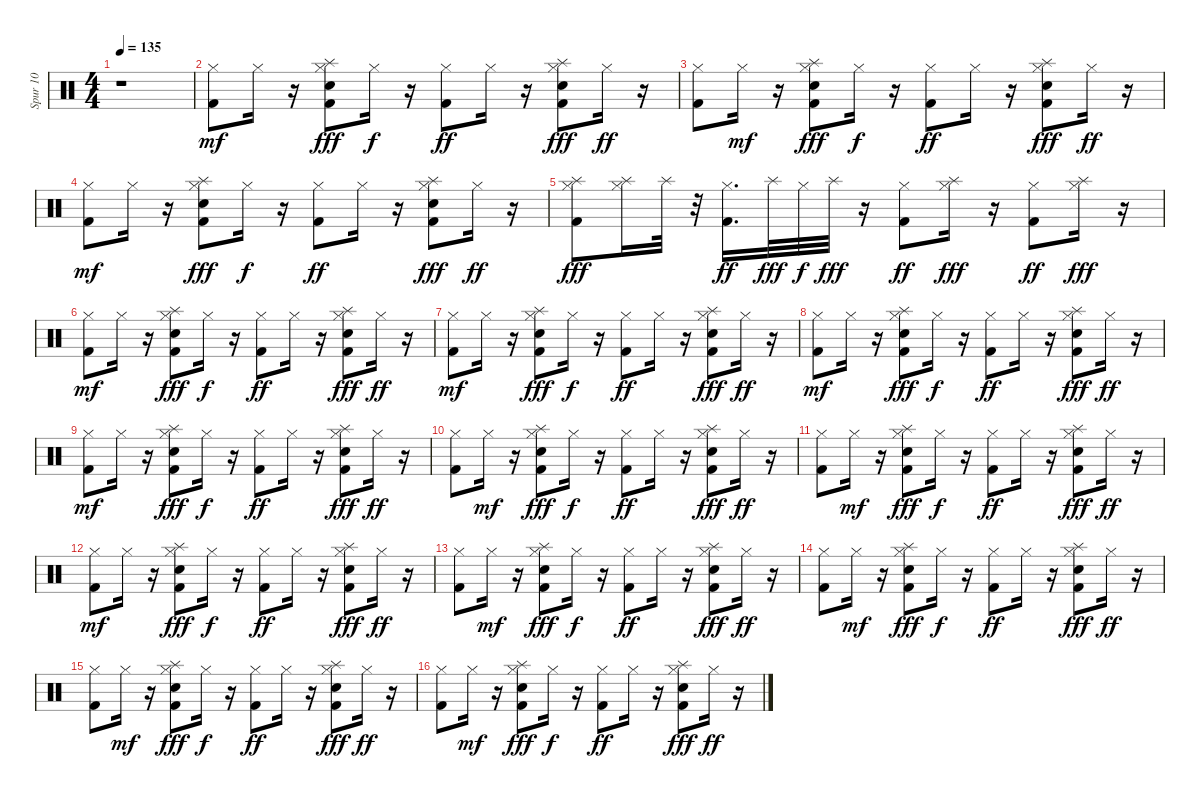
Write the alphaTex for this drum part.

\track ("Spur 10" "Spur 10") {instrument percussion}
\staff {score}
\articulation defaults
\ts (4 4)
\tempo 135
\clef neutral
\ks c
r.1{dy mf} |
("Kick (hit) 2" "Hi-Hat (closed)").8 "Hi-Hat (closed)".16 r.16 ("Kick (hit) 2" "Hi-Hat (closed)" "Snare (hit) 2" "Splash (hit)").8{dy fff} "Hi-Hat (closed)".16{dy f} r.16 ("Kick (hit) 2" "Hi-Hat (closed)").8{dy ff} "Hi-Hat (closed)".16 r.16 ("Kick (hit) 2" "Hi-Hat (closed)" "Snare (hit) 2" "Splash (hit)").8{dy fff} "Hi-Hat (closed)".16{dy ff} r.16 |
("Hi-Hat (closed)" "Kick (hit) 2").8 "Hi-Hat (closed)".16{dy mf} r.16 ("Hi-Hat (closed)" "Kick (hit) 2" "Splash (hit)" "Snare (hit) 2").8{dy fff} "Hi-Hat (closed)".16{dy f} r.16 ("Hi-Hat (closed)" "Kick (hit) 2").8{dy ff} "Hi-Hat (closed)".16 r.16 ("Hi-Hat (closed)" "Kick (hit) 2" "Splash (hit)" "Snare (hit) 2").8{dy fff} "Hi-Hat (closed)".16{dy ff} r.16 |
("Kick (hit) 2" "Hi-Hat (closed)").8{dy mf} "Hi-Hat (closed)".16 r.16 ("Kick (hit) 2" "Hi-Hat (closed)" "Splash (hit)" "Snare (hit) 2").8{dy fff} "Hi-Hat (closed)".16{dy f} r.16 ("Kick (hit) 2" "Hi-Hat (closed)").8{dy ff} "Hi-Hat (closed)".16 r.16 ("Kick (hit) 2" "Hi-Hat (closed)" "Splash (hit)" "Snare (hit) 2").8{dy fff} "Hi-Hat (closed)".16{dy ff} r.16 |
("Kick (hit) 2" "Hi-Hat (closed)" "Splash (hit)").8{dy fff} ("Hi-Hat (closed)" "Splash (hit)").16 "Splash (hit)".32 r.32 ("Kick (hit) 2" "Hi-Hat (closed)").16{d dy ff} "Splash (hit)".32{dy fff} "Hi-Hat (closed)".32{dy f} "Splash (hit)".32{dy fff} r.16 ("Kick (hit) 2" "Hi-Hat (closed)").8{dy ff} ("Hi-Hat (closed)" "Splash (hit)").16{dy fff} r.16 ("Kick (hit) 2" "Hi-Hat (closed)").8{dy ff} ("Hi-Hat (closed)" "Splash (hit)").16{dy fff} r.16 |
("Kick (hit) 2" "Hi-Hat (closed)").8{dy mf} "Hi-Hat (closed)".16 r.16 ("Kick (hit) 2" "Hi-Hat (closed)" "Splash (hit)" "Snare (hit) 2").8{dy fff} "Hi-Hat (closed)".16{dy f} r.16 ("Kick (hit) 2" "Hi-Hat (closed)").8{dy ff} "Hi-Hat (closed)".16 r.16 ("Kick (hit) 2" "Hi-Hat (closed)" "Splash (hit)" "Snare (hit) 2").8{dy fff} "Hi-Hat (closed)".16{dy ff} r.16 |
("Kick (hit) 2" "Hi-Hat (closed)").8{dy mf} "Hi-Hat (closed)".16 r.16 ("Kick (hit) 2" "Hi-Hat (closed)" "Snare (hit) 2" "Splash (hit)").8{dy fff} "Hi-Hat (closed)".16{dy f} r.16 ("Kick (hit) 2" "Hi-Hat (closed)").8{dy ff} "Hi-Hat (closed)".16 r.16 ("Kick (hit) 2" "Hi-Hat (closed)" "Snare (hit) 2" "Splash (hit)").8{dy fff} "Hi-Hat (closed)".16{dy ff} r.16 |
("Kick (hit) 2" "Hi-Hat (closed)").8{dy mf} "Hi-Hat (closed)".16 r.16 ("Kick (hit) 2" "Hi-Hat (closed)" "Snare (hit) 2" "Splash (hit)").8{dy fff} "Hi-Hat (closed)".16{dy f} r.16 ("Kick (hit) 2" "Hi-Hat (closed)").8{dy ff} "Hi-Hat (closed)".16 r.16 ("Kick (hit) 2" "Hi-Hat (closed)" "Snare (hit) 2" "Splash (hit)").8{dy fff} "Hi-Hat (closed)".16{dy ff} r.16 |
("Kick (hit) 2" "Hi-Hat (closed)").8{dy mf} "Hi-Hat (closed)".16 r.16 ("Kick (hit) 2" "Hi-Hat (closed)" "Snare (hit) 2" "Splash (hit)").8{dy fff} "Hi-Hat (closed)".16{dy f} r.16 ("Kick (hit) 2" "Hi-Hat (closed)").8{dy ff} "Hi-Hat (closed)".16 r.16 ("Kick (hit) 2" "Hi-Hat (closed)" "Snare (hit) 2" "Splash (hit)").8{dy fff} "Hi-Hat (closed)".16{dy ff} r.16 |
("Hi-Hat (closed)" "Kick (hit) 2").8 "Hi-Hat (closed)".16{dy mf} r.16 ("Kick (hit) 2" "Hi-Hat (closed)" "Splash (hit)" "Snare (hit) 2").8{dy fff} "Hi-Hat (closed)".16{dy f} r.16 ("Hi-Hat (closed)" "Kick (hit) 2").8{dy ff} "Hi-Hat (closed)".16 r.16 ("Hi-Hat (closed)" "Kick (hit) 2" "Splash (hit)" "Snare (hit) 2").8{dy fff} "Hi-Hat (closed)".16{dy ff} r.16 |
("Hi-Hat (closed)" "Kick (hit) 2").8 "Hi-Hat (closed)".16{dy mf} r.16 ("Hi-Hat (closed)" "Kick (hit) 2" "Splash (hit)" "Snare (hit) 2").8{dy fff} "Hi-Hat (closed)".16{dy f} r.16 ("Hi-Hat (closed)" "Kick (hit) 2").8{dy ff} "Hi-Hat (closed)".16 r.16 ("Hi-Hat (closed)" "Kick (hit) 2" "Splash (hit)" "Snare (hit) 2").8{dy fff} "Hi-Hat (closed)".16{dy ff} r.16 |
("Kick (hit) 2" "Hi-Hat (closed)").8{dy mf} "Hi-Hat (closed)".16 r.16 ("Kick (hit) 2" "Hi-Hat (closed)" "Snare (hit) 2" "Splash (hit)").8{dy fff} "Hi-Hat (closed)".16{dy f} r.16 ("Kick (hit) 2" "Hi-Hat (closed)").8{dy ff} "Hi-Hat (closed)".16 r.16 ("Kick (hit) 2" "Hi-Hat (closed)" "Snare (hit) 2" "Splash (hit)").8{dy fff} "Hi-Hat (closed)".16{dy ff} r.16 |
("Hi-Hat (closed)" "Kick (hit) 2").8 "Hi-Hat (closed)".16{dy mf} r.16 ("Hi-Hat (closed)" "Kick (hit) 2" "Snare (hit) 2" "Splash (hit)").8{dy fff} "Hi-Hat (closed)".16{dy f} r.16 ("Hi-Hat (closed)" "Kick (hit) 2").8{dy ff} "Hi-Hat (closed)".16 r.16 ("Hi-Hat (closed)" "Kick (hit) 2" "Snare (hit) 2" "Splash (hit)").8{dy fff} "Hi-Hat (closed)".16{dy ff} r.16 |
("Hi-Hat (closed)" "Kick (hit) 2").8 "Hi-Hat (closed)".16{dy mf} r.16 ("Hi-Hat (closed)" "Kick (hit) 2" "Snare (hit) 2" "Splash (hit)").8{dy fff} "Hi-Hat (closed)".16{dy f} r.16 ("Hi-Hat (closed)" "Kick (hit) 2").8{dy ff} "Hi-Hat (closed)".16 r.16 ("Hi-Hat (closed)" "Kick (hit) 2" "Snare (hit) 2" "Splash (hit)").8{dy fff} "Hi-Hat (closed)".16{dy ff} r.16 |
("Hi-Hat (closed)" "Kick (hit) 2").8 "Hi-Hat (closed)".16{dy mf} r.16 ("Hi-Hat (closed)" "Kick (hit) 2" "Snare (hit) 2" "Splash (hit)").8{dy fff} "Hi-Hat (closed)".16{dy f} r.16 ("Hi-Hat (closed)" "Kick (hit) 2").8{dy ff} "Hi-Hat (closed)".16 r.16 ("Hi-Hat (closed)" "Kick (hit) 2" "Snare (hit) 2" "Splash (hit)").8{dy fff} "Hi-Hat (closed)".16{dy ff} r.16 |
("Hi-Hat (closed)" "Kick (hit) 2").8 "Hi-Hat (closed)".16{dy mf} r.16 ("Hi-Hat (closed)" "Kick (hit) 2" "Snare (hit) 2" "Splash (hit)").8{dy fff} "Hi-Hat (closed)".16{dy f} r.16 ("Hi-Hat (closed)" "Kick (hit) 2").8{dy ff} "Hi-Hat (closed)".16 r.16 ("Hi-Hat (closed)" "Kick (hit) 2" "Snare (hit) 2" "Splash (hit)").8{dy fff} "Hi-Hat (closed)".16{dy ff} r.16
